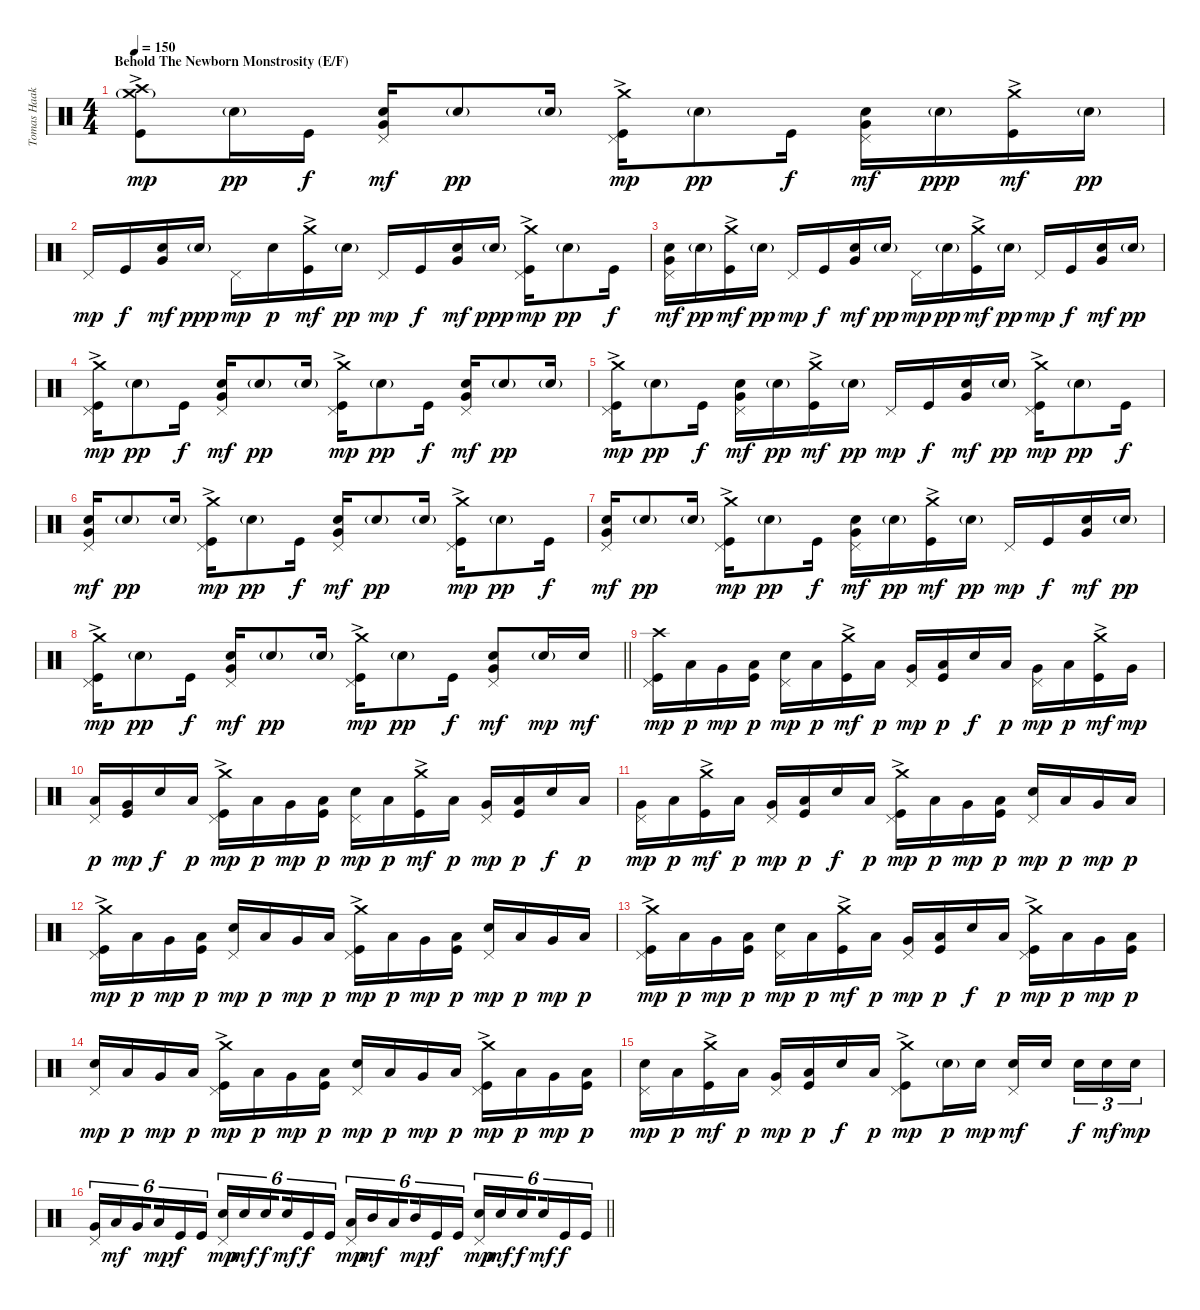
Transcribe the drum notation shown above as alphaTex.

\track ("Tomas Haake (Drums)" "Tomas Haak") {instrument percussion}
\staff {score}
\articulation defaults
\ts (4 4)
\section ("" "Behold The Newborn Monstrosity (E/F)")
\tempo 150
\clef neutral
\ks c
("Crash high (hit)"{ac} "Crash medium (hit)"{g} "Kick (hit)").8{dy mp} "Electric Snare (hit)"{g}.16{dy pp} "Kick (hit)".16{dy f} ("Pedal Hi-Hat (hit)" "Very Low Tom (hit)" "Electric Snare (hit)").16{dy mf} "Electric Snare (hit)"{g}.8{dy pp} "Electric Snare (hit)"{g}.16 ("Crash medium (hit)"{ac} "Pedal Hi-Hat (hit)" "Kick (hit)").16{dy mp} "Electric Snare (hit)"{g}.8{dy pp} "Kick (hit)".16{dy f} ("Pedal Hi-Hat (hit)" "Very Low Tom (hit)" "Electric Snare (hit)").16{dy mf} "Electric Snare (hit)"{g}.16{dy ppp} ("Crash medium (hit)"{ac} "Kick (hit)").16{dy mf} "Electric Snare (hit)"{g}.16{dy pp} |
"Pedal Hi-Hat (hit)".16{dy mp} "Kick (hit)".16{dy f} ("Very Low Tom (hit)" "Electric Snare (hit)").16{dy mf} "Electric Snare (hit)"{g}.16{dy ppp} "Pedal Hi-Hat (hit)".16{dy mp} "Electric Snare (hit)".16{dy p} ("Crash medium (hit)"{ac} "Kick (hit)").16{dy mf} "Electric Snare (hit)"{g}.16{dy pp} "Pedal Hi-Hat (hit)".16{dy mp} "Kick (hit)".16{dy f} ("Very Low Tom (hit)" "Electric Snare (hit)").16{dy mf} "Electric Snare (hit)"{g}.16{dy ppp} ("Crash medium (hit)"{ac} "Pedal Hi-Hat (hit)" "Kick (hit)").16{dy mp} "Electric Snare (hit)"{g}.8{dy pp} "Kick (hit)".16{dy f} |
("Pedal Hi-Hat (hit)" "Very Low Tom (hit)" "Electric Snare (hit)").16{dy mf} "Electric Snare (hit)"{g}.16{dy pp} ("Crash medium (hit)"{ac} "Kick (hit)").16{dy mf} "Electric Snare (hit)"{g}.16{dy pp} "Pedal Hi-Hat (hit)".16{dy mp} "Kick (hit)".16{dy f} ("Very Low Tom (hit)" "Electric Snare (hit)").16{dy mf} "Electric Snare (hit)"{g}.16{dy pp} "Pedal Hi-Hat (hit)".16{dy mp} "Electric Snare (hit)"{g}.16{dy pp} ("Crash medium (hit)"{ac} "Kick (hit)").16{dy mf} "Electric Snare (hit)"{g}.16{dy pp} "Pedal Hi-Hat (hit)".16{dy mp} "Kick (hit)".16{dy f} ("Very Low Tom (hit)" "Electric Snare (hit)").16{dy mf} "Electric Snare (hit)"{g}.16{dy pp} |
("Crash medium (hit)"{ac} "Pedal Hi-Hat (hit)" "Kick (hit)").16{dy mp} "Electric Snare (hit)"{g}.8{dy pp} "Kick (hit)".16{dy f} ("Pedal Hi-Hat (hit)" "Very Low Tom (hit)" "Electric Snare (hit)").16{dy mf} "Electric Snare (hit)"{g}.8{dy pp} "Electric Snare (hit)"{g}.16 ("Crash medium (hit)"{ac} "Pedal Hi-Hat (hit)" "Kick (hit)").16{dy mp} "Electric Snare (hit)"{g}.8{dy pp} "Kick (hit)".16{dy f} ("Pedal Hi-Hat (hit)" "Very Low Tom (hit)" "Electric Snare (hit)").16{dy mf} "Electric Snare (hit)"{g}.8{dy pp} "Electric Snare (hit)"{g}.16 |
("Crash medium (hit)"{ac} "Pedal Hi-Hat (hit)" "Kick (hit)").16{dy mp} "Electric Snare (hit)"{g}.8{dy pp} "Kick (hit)".16{dy f} ("Pedal Hi-Hat (hit)" "Very Low Tom (hit)" "Electric Snare (hit)").16{dy mf} "Electric Snare (hit)"{g}.16{dy pp} ("Crash medium (hit)"{ac} "Kick (hit)").16{dy mf} "Electric Snare (hit)"{g}.16{dy pp} "Pedal Hi-Hat (hit)".16{dy mp} "Kick (hit)".16{dy f} ("Very Low Tom (hit)" "Electric Snare (hit)").16{dy mf} "Electric Snare (hit)"{g}.16{dy pp} ("Crash medium (hit)"{ac} "Pedal Hi-Hat (hit)" "Kick (hit)").16{dy mp} "Electric Snare (hit)"{g}.8{dy pp} "Kick (hit)".16{dy f} |
("Pedal Hi-Hat (hit)" "Very Low Tom (hit)" "Electric Snare (hit)").16{dy mf} "Electric Snare (hit)"{g}.8{dy pp} "Electric Snare (hit)"{g}.16 ("Crash medium (hit)"{ac} "Pedal Hi-Hat (hit)" "Kick (hit)").16{dy mp} "Electric Snare (hit)"{g}.8{dy pp} "Kick (hit)".16{dy f} ("Pedal Hi-Hat (hit)" "Very Low Tom (hit)" "Electric Snare (hit)").16{dy mf} "Electric Snare (hit)"{g}.8{dy pp} "Electric Snare (hit)"{g}.16 ("Crash medium (hit)"{ac} "Pedal Hi-Hat (hit)" "Kick (hit)").16{dy mp} "Electric Snare (hit)"{g}.8{dy pp} "Kick (hit)".16{dy f} |
("Pedal Hi-Hat (hit)" "Very Low Tom (hit)" "Electric Snare (hit)").16{dy mf} "Electric Snare (hit)"{g}.8{dy pp} "Electric Snare (hit)"{g}.16 ("Crash medium (hit)"{ac} "Pedal Hi-Hat (hit)" "Kick (hit)").16{dy mp} "Electric Snare (hit)"{g}.8{dy pp} "Kick (hit)".16{dy f} ("Pedal Hi-Hat (hit)" "Very Low Tom (hit)" "Electric Snare (hit)").16{dy mf} "Electric Snare (hit)"{g}.16{dy pp} ("Crash medium (hit)"{ac} "Kick (hit)").16{dy mf} "Electric Snare (hit)"{g}.16{dy pp} "Pedal Hi-Hat (hit)".16{dy mp} "Kick (hit)".16{dy f} ("Very Low Tom (hit)" "Electric Snare (hit)").16{dy mf} "Electric Snare (hit)"{g}.16{dy pp} |
\barLineRight lightlight
("Crash medium (hit)"{ac} "Pedal Hi-Hat (hit)" "Kick (hit)").16{dy mp} "Electric Snare (hit)"{g}.8{dy pp} "Kick (hit)".16{dy f} ("Pedal Hi-Hat (hit)" "Very Low Tom (hit)" "Electric Snare (hit)").16{dy mf} "Electric Snare (hit)"{g}.8{dy pp} "Electric Snare (hit)"{g}.16 ("Crash medium (hit)"{ac} "Pedal Hi-Hat (hit)" "Kick (hit)").16{dy mp} "Electric Snare (hit)"{g}.8{dy pp} "Kick (hit)".16{dy f} ("Pedal Hi-Hat (hit)" "Very Low Tom (hit)" "Electric Snare (hit)").8{dy mf} "Electric Snare (hit)"{g}.16{dy mp} "Electric Snare (hit)".16{dy mf} |
("Crash high (hit)" "Pedal Hi-Hat (hit)" "Kick (hit)").16{dy mp} "Low Tom (hit)".16{dy p} "Very Low Tom (hit)".16{dy mp} ("Low Tom (hit)" "Kick (hit)").16{dy p} ("Pedal Hi-Hat (hit)" "Electric Snare (hit)").16{dy mp} "Low Tom (hit)".16{dy p} ("Crash medium (hit)"{ac} "Kick (hit)").16{dy mf} "Low Tom (hit)".16{dy p} ("Pedal Hi-Hat (hit)" "Very Low Tom (hit)").16{dy mp} ("Low Tom (hit)" "Kick (hit)").16{dy p} "Electric Snare (hit)".16{dy f} "Low Tom (hit)".16{dy p} ("Pedal Hi-Hat (hit)" "Very Low Tom (hit)").16{dy mp} "Low Tom (hit)".16{dy p} ("Crash medium (hit)"{ac} "Kick (hit)").16{dy mf} "Very Low Tom (hit)".16{dy mp} |
("Pedal Hi-Hat (hit)" "Low Tom (hit)").16{dy p} ("Very Low Tom (hit)" "Kick (hit)").16{dy mp} "Electric Snare (hit)".16{dy f} "Low Tom (hit)".16{dy p} ("Crash medium (hit)"{ac} "Pedal Hi-Hat (hit)" "Kick (hit)").16{dy mp} "Low Tom (hit)".16{dy p} "Very Low Tom (hit)".16{dy mp} ("Low Tom (hit)" "Kick (hit)").16{dy p} ("Pedal Hi-Hat (hit)" "Electric Snare (hit)").16{dy mp} "Low Tom (hit)".16{dy p} ("Crash medium (hit)"{ac} "Kick (hit)").16{dy mf} "Low Tom (hit)".16{dy p} ("Pedal Hi-Hat (hit)" "Very Low Tom (hit)").16{dy mp} ("Low Tom (hit)" "Kick (hit)").16{dy p} "Electric Snare (hit)".16{dy f} "Low Tom (hit)".16{dy p} |
("Pedal Hi-Hat (hit)" "Very Low Tom (hit)").16{dy mp} "Low Tom (hit)".16{dy p} ("Crash medium (hit)"{ac} "Kick (hit)").16{dy mf} "Low Tom (hit)".16{dy p} ("Pedal Hi-Hat (hit)" "Very Low Tom (hit)").16{dy mp} ("Low Tom (hit)" "Kick (hit)").16{dy p} "Electric Snare (hit)".16{dy f} "Low Tom (hit)".16{dy p} ("Crash medium (hit)"{ac} "Pedal Hi-Hat (hit)" "Kick (hit)").16{dy mp} "Low Tom (hit)".16{dy p} "Very Low Tom (hit)".16{dy mp} ("Low Tom (hit)" "Kick (hit)").16{dy p} ("Pedal Hi-Hat (hit)" "Electric Snare (hit)").16{dy mp} "Low Tom (hit)".16{dy p} "Very Low Tom (hit)".16{dy mp} "Low Tom (hit)".16{dy p} |
("Crash medium (hit)"{ac} "Pedal Hi-Hat (hit)" "Kick (hit)").16{dy mp} "Low Tom (hit)".16{dy p} "Very Low Tom (hit)".16{dy mp} ("Low Tom (hit)" "Kick (hit)").16{dy p} ("Pedal Hi-Hat (hit)" "Electric Snare (hit)").16{dy mp} "Low Tom (hit)".16{dy p} "Very Low Tom (hit)".16{dy mp} "Low Tom (hit)".16{dy p} ("Crash medium (hit)"{ac} "Pedal Hi-Hat (hit)" "Kick (hit)").16{dy mp} "Low Tom (hit)".16{dy p} "Very Low Tom (hit)".16{dy mp} ("Low Tom (hit)" "Kick (hit)").16{dy p} ("Pedal Hi-Hat (hit)" "Electric Snare (hit)").16{dy mp} "Low Tom (hit)".16{dy p} "Very Low Tom (hit)".16{dy mp} "Low Tom (hit)".16{dy p} |
("Crash medium (hit)"{ac} "Pedal Hi-Hat (hit)" "Kick (hit)").16{dy mp} "Low Tom (hit)".16{dy p} "Very Low Tom (hit)".16{dy mp} ("Low Tom (hit)" "Kick (hit)").16{dy p} ("Pedal Hi-Hat (hit)" "Electric Snare (hit)").16{dy mp} "Low Tom (hit)".16{dy p} ("Crash medium (hit)"{ac} "Kick (hit)").16{dy mf} "Low Tom (hit)".16{dy p} ("Pedal Hi-Hat (hit)" "Very Low Tom (hit)").16{dy mp} ("Low Tom (hit)" "Kick (hit)").16{dy p} "Electric Snare (hit)".16{dy f} "Low Tom (hit)".16{dy p} ("Crash medium (hit)"{ac} "Pedal Hi-Hat (hit)" "Kick (hit)").16{dy mp} "Low Tom (hit)".16{dy p} "Very Low Tom (hit)".16{dy mp} ("Low Tom (hit)" "Kick (hit)").16{dy p} |
("Pedal Hi-Hat (hit)" "Electric Snare (hit)").16{dy mp} "Low Tom (hit)".16{dy p} "Very Low Tom (hit)".16{dy mp} "Low Tom (hit)".16{dy p} ("Crash medium (hit)"{ac} "Pedal Hi-Hat (hit)" "Kick (hit)").16{dy mp} "Low Tom (hit)".16{dy p} "Very Low Tom (hit)".16{dy mp} ("Low Tom (hit)" "Kick (hit)").16{dy p} ("Pedal Hi-Hat (hit)" "Electric Snare (hit)").16{dy mp} "Low Tom (hit)".16{dy p} "Very Low Tom (hit)".16{dy mp} "Low Tom (hit)".16{dy p} ("Crash medium (hit)"{ac} "Pedal Hi-Hat (hit)" "Kick (hit)").16{dy mp} "Low Tom (hit)".16{dy p} "Very Low Tom (hit)".16{dy mp} ("Low Tom (hit)" "Kick (hit)").16{dy p} |
("Pedal Hi-Hat (hit)" "Electric Snare (hit)").16{dy mp} "Low Tom (hit)".16{dy p} ("Crash medium (hit)"{ac} "Kick (hit)").16{dy mf} "Low Tom (hit)".16{dy p} ("Pedal Hi-Hat (hit)" "Very Low Tom (hit)").16{dy mp} ("Low Tom (hit)" "Kick (hit)").16{dy p} "Electric Snare (hit)".16{dy f} "Low Tom (hit)".16{dy p} ("Crash medium (hit)"{ac} "Pedal Hi-Hat (hit)" "Kick (hit)").8{dy mp} "Electric Snare (hit)"{g}.16{dy p} "Electric Snare (hit)".16{dy mp} ("Pedal Hi-Hat (hit)" "Electric Snare (hit)").16{dy mf} "Electric Snare (hit)".16{beam splitsecondary} "Electric Snare (hit)".16{tu (3 2) dy f} "Electric Snare (hit)".16{tu (3 2) dy mf} "Electric Snare (hit)".16{tu (3 2) dy mp} |
\barLineRight lightlight
("Pedal Hi-Hat (hit)" "Very Low Tom (hit)").16{tu (6 4)} "Low Tom (hit)".16{tu (6 4) dy mf} "Very Low Tom (hit)".16{tu (6 4) beam splitsecondary} "Low Tom (hit)".16{tu (6 4) dy mp} "Kick (hit)".16{tu (6 4) dy f} "Kick (hit)".16{tu (6 4)} ("Pedal Hi-Hat (hit)" "Electric Snare (hit)").16{tu (6 4) dy mp} "Electric Snare (hit)".16{tu (6 4) dy mf} "Electric Snare (hit)".16{tu (6 4) dy f beam splitsecondary} "Electric Snare (hit)".16{tu (6 4) dy mf} "Kick (hit)".16{tu (6 4) dy f} "Kick (hit)".16{tu (6 4)} ("Pedal Hi-Hat (hit)" "Low Tom (hit)").16{tu (6 4) dy mp} "Mid Tom (hit)".16{tu (6 4) dy mf} "Low Tom (hit)".16{tu (6 4) beam splitsecondary} "Mid Tom (hit)".16{tu (6 4) dy mp} "Kick (hit)".16{tu (6 4) dy f} "Kick (hit)".16{tu (6 4)} ("Pedal Hi-Hat (hit)" "Electric Snare (hit)").16{tu (6 4) dy mp} "Electric Snare (hit)".16{tu (6 4) dy mf} "Electric Snare (hit)".16{tu (6 4) dy f beam splitsecondary} "Electric Snare (hit)".16{tu (6 4) dy mf} "Kick (hit)".16{tu (6 4) dy f} "Kick (hit)".16{tu (6 4)}
